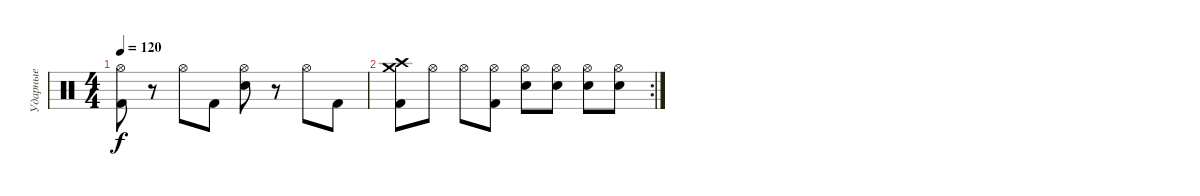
\track ("Ударные" "Ударные") {instrument percussion}
\staff {score}
\articulation defaults
\ts (4 4)
\tempo 120
\clef neutral
\ks c
("Hi-Hat (open)" "Kick (hit) 2").8{dy f} r.8 "Hi-Hat (open)".8 "Kick (hit) 2".8 ("Hi-Hat (open)" "Electric Snare (hit)").8 r.8 "Hi-Hat (open)".8 "Kick (hit) 2".8 |
\rc 2
("Crash high (hit)" "Crash medium (hit)" "Kick (hit) 2").8 "Hi-Hat (open)".8 "Hi-Hat (open)".8 ("Hi-Hat (open)" "Kick (hit) 2").8 ("Hi-Hat (open)" "Electric Snare (hit)").8 ("Hi-Hat (open)" "Electric Snare (hit)").8 ("Hi-Hat (open)" "Electric Snare (hit)").8 ("Hi-Hat (open)" "Electric Snare (hit)").8
